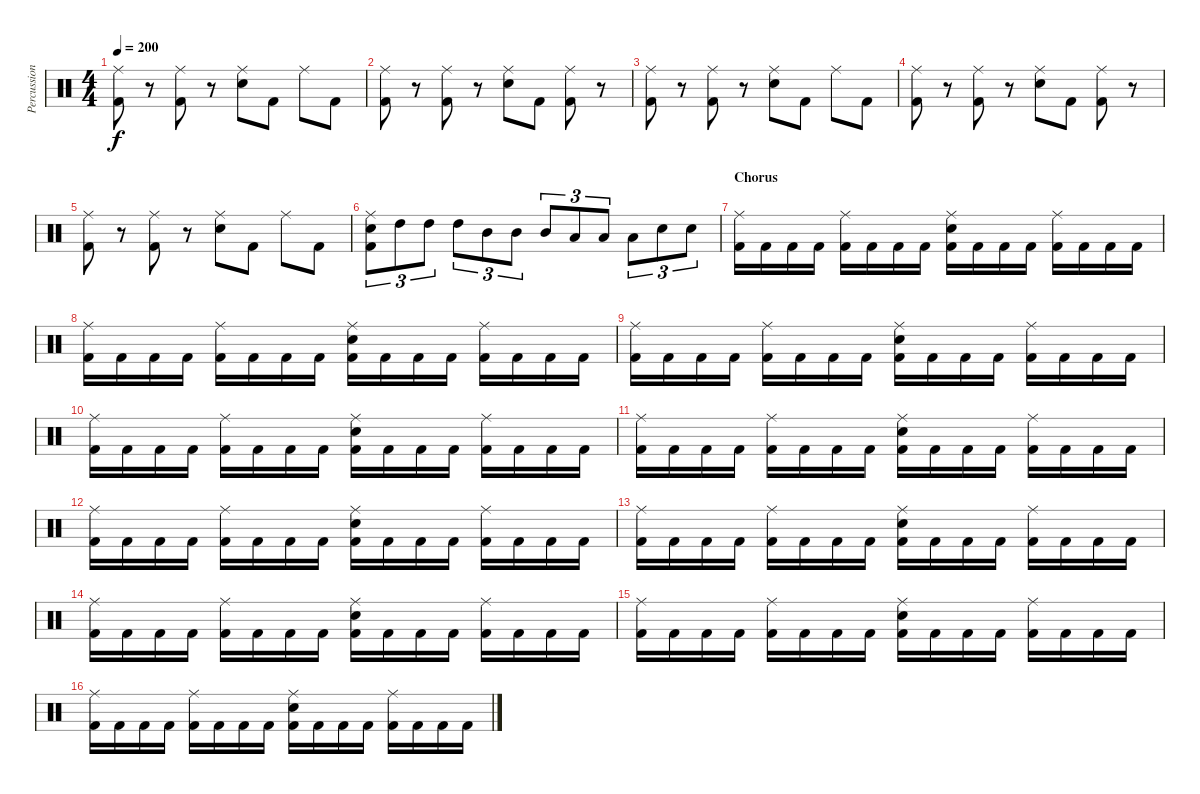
\track ("Percussions" "Percussion") {instrument percussion}
\staff {score}
\articulation defaults
\ts (4 4)
\tempo 200
\clef neutral
\ks c
("Ride (middle)" "Kick (hit) 2").8{dy f} r.8 ("Ride (middle)" "Kick (hit) 2").8 r.8 ("Ride (middle)" "Electric Snare (hit)").8 "Kick (hit) 2".8 "Ride (middle)".8 "Kick (hit) 2".8 |
("Ride (middle)" "Kick (hit) 2").8 r.8 ("Ride (middle)" "Kick (hit) 2").8 r.8 ("Ride (middle)" "Electric Snare (hit)").8 "Kick (hit) 2".8 ("Ride (middle)" "Kick (hit) 2").8 r.8 |
("Ride (middle)" "Kick (hit) 2").8 r.8 ("Ride (middle)" "Kick (hit) 2").8 r.8 ("Ride (middle)" "Electric Snare (hit)").8 "Kick (hit) 2".8 "Ride (middle)".8 "Kick (hit) 2".8 |
("Ride (middle)" "Kick (hit) 2").8 r.8 ("Ride (middle)" "Kick (hit) 2").8 r.8 ("Ride (middle)" "Electric Snare (hit)").8 "Kick (hit) 2".8 ("Ride (middle)" "Kick (hit) 2").8 r.8 |
("Ride (middle)" "Kick (hit) 2").8 r.8 ("Ride (middle)" "Kick (hit) 2").8 r.8 ("Ride (middle)" "Electric Snare (hit)").8 "Kick (hit) 2".8 "Ride (middle)".8 "Kick (hit) 2".8 |
("Ride (middle)" "Electric Snare (hit)" "Kick (hit) 2").8{tu (3 2)} "High Tom (hit)".8{tu (3 2)} "High Tom (hit)".8{tu (3 2)} "High Tom (hit)".8{tu (3 2)} "Mid Tom (hit)".8{tu (3 2)} "Mid Tom (hit)".8{tu (3 2)} "Mid Tom (hit)".8{tu (3 2)} "Low Tom (hit)".8{tu (3 2)} "Low Tom (hit)".8{tu (3 2)} "Low Tom (hit)".8{tu (3 2)} "Electric Snare (hit)".8{tu (3 2)} "Electric Snare (hit)".8{tu (3 2)} |
\section ("" "Chorus")
("Ride (middle)" "Kick (hit) 2").16 "Kick (hit) 2".16 "Kick (hit) 2".16 "Kick (hit) 2".16 ("Ride (middle)" "Kick (hit) 2").16 "Kick (hit) 2".16 "Kick (hit) 2".16 "Kick (hit) 2".16 ("Ride (middle)" "Electric Snare (hit)" "Kick (hit) 2").16 "Kick (hit) 2".16 "Kick (hit) 2".16 "Kick (hit) 2".16 ("Ride (middle)" "Kick (hit) 2").16 "Kick (hit) 2".16 "Kick (hit) 2".16 "Kick (hit) 2".16 |
("Ride (middle)" "Kick (hit) 2").16 "Kick (hit) 2".16 "Kick (hit) 2".16 "Kick (hit) 2".16 ("Ride (middle)" "Kick (hit) 2").16 "Kick (hit) 2".16 "Kick (hit) 2".16 "Kick (hit) 2".16 ("Ride (middle)" "Electric Snare (hit)" "Kick (hit) 2").16 "Kick (hit) 2".16 "Kick (hit) 2".16 "Kick (hit) 2".16 ("Ride (middle)" "Kick (hit) 2").16 "Kick (hit) 2".16 "Kick (hit) 2".16 "Kick (hit) 2".16 |
("Ride (middle)" "Kick (hit) 2").16 "Kick (hit) 2".16 "Kick (hit) 2".16 "Kick (hit) 2".16 ("Ride (middle)" "Kick (hit) 2").16 "Kick (hit) 2".16 "Kick (hit) 2".16 "Kick (hit) 2".16 ("Ride (middle)" "Electric Snare (hit)" "Kick (hit) 2").16 "Kick (hit) 2".16 "Kick (hit) 2".16 "Kick (hit) 2".16 ("Ride (middle)" "Kick (hit) 2").16 "Kick (hit) 2".16 "Kick (hit) 2".16 "Kick (hit) 2".16 |
("Ride (middle)" "Kick (hit) 2").16 "Kick (hit) 2".16 "Kick (hit) 2".16 "Kick (hit) 2".16 ("Ride (middle)" "Kick (hit) 2").16 "Kick (hit) 2".16 "Kick (hit) 2".16 "Kick (hit) 2".16 ("Ride (middle)" "Electric Snare (hit)" "Kick (hit) 2").16 "Kick (hit) 2".16 "Kick (hit) 2".16 "Kick (hit) 2".16 ("Ride (middle)" "Kick (hit) 2").16 "Kick (hit) 2".16 "Kick (hit) 2".16 "Kick (hit) 2".16 |
("Ride (middle)" "Kick (hit) 2").16 "Kick (hit) 2".16 "Kick (hit) 2".16 "Kick (hit) 2".16 ("Ride (middle)" "Kick (hit) 2").16 "Kick (hit) 2".16 "Kick (hit) 2".16 "Kick (hit) 2".16 ("Ride (middle)" "Electric Snare (hit)" "Kick (hit) 2").16 "Kick (hit) 2".16 "Kick (hit) 2".16 "Kick (hit) 2".16 ("Ride (middle)" "Kick (hit) 2").16 "Kick (hit) 2".16 "Kick (hit) 2".16 "Kick (hit) 2".16 |
("Ride (middle)" "Kick (hit) 2").16 "Kick (hit) 2".16 "Kick (hit) 2".16 "Kick (hit) 2".16 ("Ride (middle)" "Kick (hit) 2").16 "Kick (hit) 2".16 "Kick (hit) 2".16 "Kick (hit) 2".16 ("Ride (middle)" "Electric Snare (hit)" "Kick (hit) 2").16 "Kick (hit) 2".16 "Kick (hit) 2".16 "Kick (hit) 2".16 ("Ride (middle)" "Kick (hit) 2").16 "Kick (hit) 2".16 "Kick (hit) 2".16 "Kick (hit) 2".16 |
("Ride (middle)" "Kick (hit) 2").16 "Kick (hit) 2".16 "Kick (hit) 2".16 "Kick (hit) 2".16 ("Ride (middle)" "Kick (hit) 2").16 "Kick (hit) 2".16 "Kick (hit) 2".16 "Kick (hit) 2".16 ("Ride (middle)" "Electric Snare (hit)" "Kick (hit) 2").16 "Kick (hit) 2".16 "Kick (hit) 2".16 "Kick (hit) 2".16 ("Ride (middle)" "Kick (hit) 2").16 "Kick (hit) 2".16 "Kick (hit) 2".16 "Kick (hit) 2".16 |
("Ride (middle)" "Kick (hit) 2").16 "Kick (hit) 2".16 "Kick (hit) 2".16 "Kick (hit) 2".16 ("Ride (middle)" "Kick (hit) 2").16 "Kick (hit) 2".16 "Kick (hit) 2".16 "Kick (hit) 2".16 ("Ride (middle)" "Electric Snare (hit)" "Kick (hit) 2").16 "Kick (hit) 2".16 "Kick (hit) 2".16 "Kick (hit) 2".16 ("Ride (middle)" "Kick (hit) 2").16 "Kick (hit) 2".16 "Kick (hit) 2".16 "Kick (hit) 2".16 |
("Ride (middle)" "Kick (hit) 2").16 "Kick (hit) 2".16 "Kick (hit) 2".16 "Kick (hit) 2".16 ("Ride (middle)" "Kick (hit) 2").16 "Kick (hit) 2".16 "Kick (hit) 2".16 "Kick (hit) 2".16 ("Ride (middle)" "Electric Snare (hit)" "Kick (hit) 2").16 "Kick (hit) 2".16 "Kick (hit) 2".16 "Kick (hit) 2".16 ("Ride (middle)" "Kick (hit) 2").16 "Kick (hit) 2".16 "Kick (hit) 2".16 "Kick (hit) 2".16 |
("Ride (middle)" "Kick (hit) 2").16 "Kick (hit) 2".16 "Kick (hit) 2".16 "Kick (hit) 2".16 ("Ride (middle)" "Kick (hit) 2").16 "Kick (hit) 2".16 "Kick (hit) 2".16 "Kick (hit) 2".16 ("Ride (middle)" "Electric Snare (hit)" "Kick (hit) 2").16 "Kick (hit) 2".16 "Kick (hit) 2".16 "Kick (hit) 2".16 ("Ride (middle)" "Kick (hit) 2").16 "Kick (hit) 2".16 "Kick (hit) 2".16 "Kick (hit) 2".16
